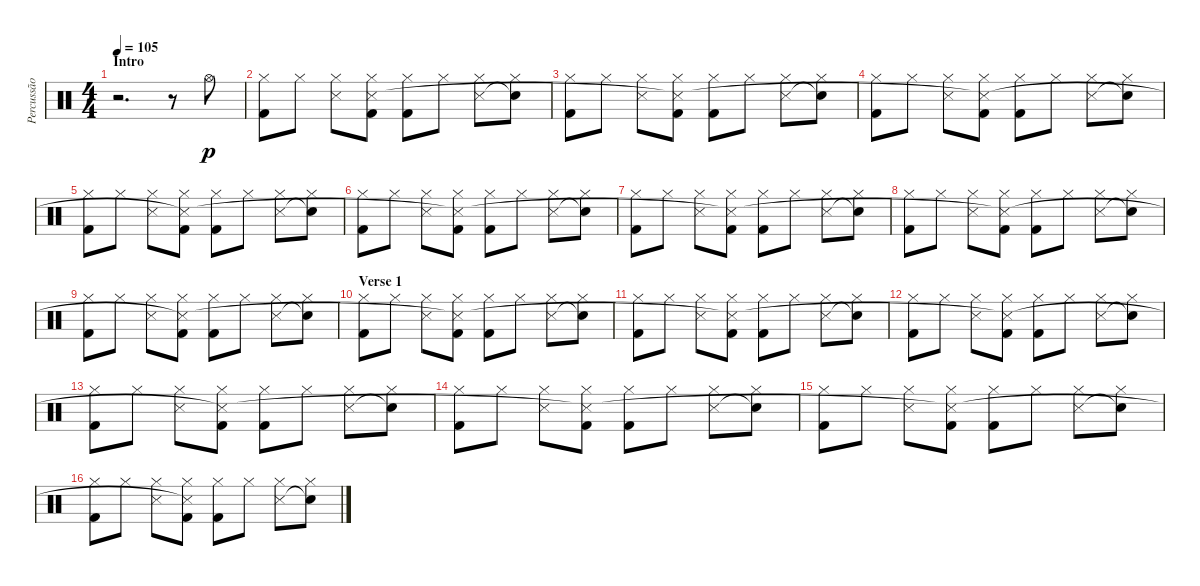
\track ("Percussão" "Percussão") {instrument percussion}
\staff {score}
\articulation defaults
\ts (4 4)
\section ("" "Intro")
\tempo 105
\clef neutral
\ks c
r.2{d dy p} r.8 "Hi-Hat (open)".8 |
("Kick (hit) 2" "Hi-Hat (closed)").8 "Hi-Hat (closed)".8 ("Hi-Hat (closed)" "Snare (side stick) 3").8 ("Kick (hit) 2" "Hi-Hat (closed)" "Snare (side stick) 3").8 ("Kick (hit) 2" "Hi-Hat (closed)").8 "Hi-Hat (closed)".8 ("Hi-Hat (closed)" "Snare (side stick) 3").8 ("Hi-Hat (closed)" "Snare (hit)"{t}).8 |
("Kick (hit) 2" "Hi-Hat (closed)").8 "Hi-Hat (closed)".8 ("Hi-Hat (closed)" "Snare (side stick) 3").8 ("Kick (hit) 2" "Hi-Hat (closed)" "Snare (side stick) 3"{t}).8 ("Kick (hit) 2" "Hi-Hat (closed)").8 "Hi-Hat (closed)".8 ("Hi-Hat (closed)" "Snare (side stick) 3").8 ("Hi-Hat (closed)" "Snare (hit)"{t}).8 |
("Kick (hit) 2" "Hi-Hat (closed)").8 "Hi-Hat (closed)".8 ("Hi-Hat (closed)" "Snare (side stick) 3").8 ("Kick (hit) 2" "Hi-Hat (closed)" "Snare (side stick) 3"{t}).8 ("Kick (hit) 2" "Hi-Hat (closed)").8 "Hi-Hat (closed)".8 ("Hi-Hat (closed)" "Snare (side stick) 3").8 ("Hi-Hat (closed)" "Snare (hit)"{t}).8 |
("Kick (hit) 2" "Hi-Hat (closed)").8 "Hi-Hat (closed)".8 ("Hi-Hat (closed)" "Snare (side stick) 3").8 ("Kick (hit) 2" "Hi-Hat (closed)" "Snare (side stick) 3"{t}).8 ("Kick (hit) 2" "Hi-Hat (closed)").8 "Hi-Hat (closed)".8 ("Hi-Hat (closed)" "Snare (side stick) 3").8 ("Hi-Hat (closed)" "Snare (hit)"{t}).8 |
("Kick (hit) 2" "Hi-Hat (closed)").8 "Hi-Hat (closed)".8 ("Hi-Hat (closed)" "Snare (side stick) 3").8 ("Kick (hit) 2" "Hi-Hat (closed)" "Snare (side stick) 3"{t}).8 ("Kick (hit) 2" "Hi-Hat (closed)").8 "Hi-Hat (closed)".8 ("Hi-Hat (closed)" "Snare (side stick) 3").8 ("Hi-Hat (closed)" "Snare (hit)"{t}).8 |
("Kick (hit) 2" "Hi-Hat (closed)").8 "Hi-Hat (closed)".8 ("Hi-Hat (closed)" "Snare (side stick) 3").8 ("Kick (hit) 2" "Hi-Hat (closed)" "Snare (side stick) 3"{t}).8 ("Kick (hit) 2" "Hi-Hat (closed)").8 "Hi-Hat (closed)".8 ("Hi-Hat (closed)" "Snare (side stick) 3").8 ("Hi-Hat (closed)" "Snare (hit)"{t}).8 |
("Kick (hit) 2" "Hi-Hat (closed)").8 "Hi-Hat (closed)".8 ("Hi-Hat (closed)" "Snare (side stick) 3").8 ("Kick (hit) 2" "Hi-Hat (closed)" "Snare (side stick) 3"{t}).8 ("Kick (hit) 2" "Hi-Hat (closed)").8 "Hi-Hat (closed)".8 ("Hi-Hat (closed)" "Snare (side stick) 3").8 ("Hi-Hat (closed)" "Snare (hit)"{t}).8 |
("Kick (hit) 2" "Hi-Hat (closed)").8 "Hi-Hat (closed)".8 ("Hi-Hat (closed)" "Snare (side stick) 3").8 ("Kick (hit) 2" "Hi-Hat (closed)" "Snare (side stick) 3"{t}).8 ("Kick (hit) 2" "Hi-Hat (closed)").8 "Hi-Hat (closed)".8 ("Hi-Hat (closed)" "Snare (side stick) 3").8 ("Hi-Hat (closed)" "Snare (hit)"{t}).8 |
\section ("" "Verse 1")
("Kick (hit) 2" "Hi-Hat (closed)").8 "Hi-Hat (closed)".8 ("Hi-Hat (closed)" "Snare (side stick) 3").8 ("Kick (hit) 2" "Hi-Hat (closed)" "Snare (side stick) 3"{t}).8 ("Kick (hit) 2" "Hi-Hat (closed)").8 "Hi-Hat (closed)".8 ("Hi-Hat (closed)" "Snare (side stick) 3").8 ("Hi-Hat (closed)" "Snare (hit)"{t}).8 |
("Kick (hit) 2" "Hi-Hat (closed)").8 "Hi-Hat (closed)".8 ("Hi-Hat (closed)" "Snare (side stick) 3").8 ("Kick (hit) 2" "Hi-Hat (closed)" "Snare (side stick) 3"{t}).8 ("Kick (hit) 2" "Hi-Hat (closed)").8 "Hi-Hat (closed)".8 ("Hi-Hat (closed)" "Snare (side stick) 3").8 ("Hi-Hat (closed)" "Snare (hit)"{t}).8 |
("Kick (hit) 2" "Hi-Hat (closed)").8 "Hi-Hat (closed)".8 ("Hi-Hat (closed)" "Snare (side stick) 3").8 ("Kick (hit) 2" "Hi-Hat (closed)" "Snare (side stick) 3"{t}).8 ("Kick (hit) 2" "Hi-Hat (closed)").8 "Hi-Hat (closed)".8 ("Hi-Hat (closed)" "Snare (side stick) 3").8 ("Hi-Hat (closed)" "Snare (hit)"{t}).8 |
("Kick (hit) 2" "Hi-Hat (closed)").8 "Hi-Hat (closed)".8 ("Hi-Hat (closed)" "Snare (side stick) 3").8 ("Kick (hit) 2" "Hi-Hat (closed)" "Snare (side stick) 3"{t}).8 ("Kick (hit) 2" "Hi-Hat (closed)").8 "Hi-Hat (closed)".8 ("Hi-Hat (closed)" "Snare (side stick) 3").8 ("Hi-Hat (closed)" "Snare (hit)"{t}).8 |
("Kick (hit) 2" "Hi-Hat (closed)").8 "Hi-Hat (closed)".8 ("Hi-Hat (closed)" "Snare (side stick) 3").8 ("Kick (hit) 2" "Hi-Hat (closed)" "Snare (side stick) 3"{t}).8 ("Kick (hit) 2" "Hi-Hat (closed)").8 "Hi-Hat (closed)".8 ("Hi-Hat (closed)" "Snare (side stick) 3").8 ("Hi-Hat (closed)" "Snare (hit)"{t}).8 |
("Kick (hit) 2" "Hi-Hat (closed)").8 "Hi-Hat (closed)".8 ("Hi-Hat (closed)" "Snare (side stick) 3").8 ("Kick (hit) 2" "Hi-Hat (closed)" "Snare (side stick) 3"{t}).8 ("Kick (hit) 2" "Hi-Hat (closed)").8 "Hi-Hat (closed)".8 ("Hi-Hat (closed)" "Snare (side stick) 3").8 ("Hi-Hat (closed)" "Snare (hit)"{t}).8 |
("Kick (hit) 2" "Hi-Hat (closed)").8 "Hi-Hat (closed)".8 ("Hi-Hat (closed)" "Snare (side stick) 3").8 ("Kick (hit) 2" "Hi-Hat (closed)" "Snare (side stick) 3"{t}).8 ("Kick (hit) 2" "Hi-Hat (closed)").8 "Hi-Hat (closed)".8 ("Hi-Hat (closed)" "Snare (side stick) 3").8 ("Hi-Hat (closed)" "Snare (hit)"{t}).8
